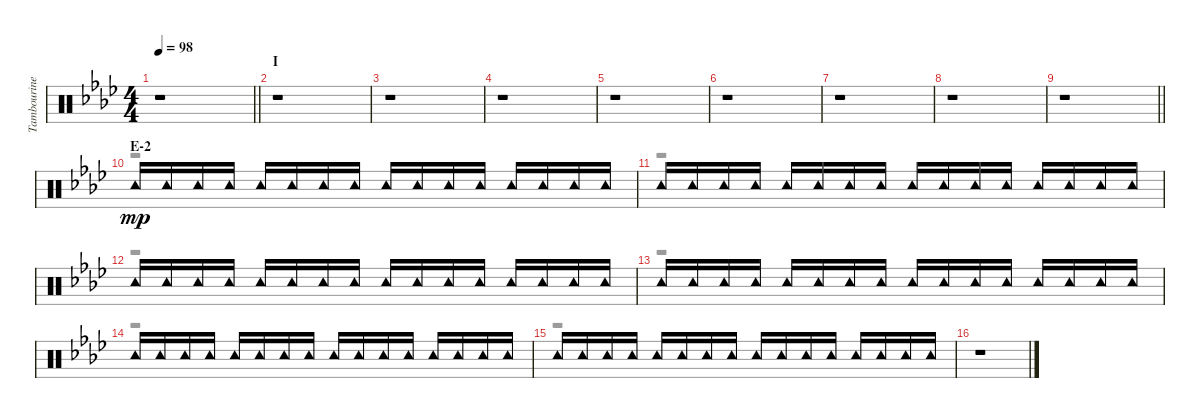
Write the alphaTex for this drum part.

\track ("Tambourine" "Tambourine") {instrument percussion}
\staff {score}
\articulation defaults
\voice
\ts (4 4)
\tempo 98
\clef neutral
\barLineRight lightlight
\ks ab
r.1{dy mp} |
\section ("" "I")
r.1 |
r.1 |
r.1 |
r.1 |
r.1 |
r.1 |
r.1 |
\barLineRight lightlight
r.1 |
\section ("" "E-2")
"Tambourine (hit)".16 "Tambourine (hit)".16 "Tambourine (hit)".16 "Tambourine (hit)".16 "Tambourine (hit)".16 "Tambourine (hit)".16 "Tambourine (hit)".16 "Tambourine (hit)".16 "Tambourine (hit)".16 "Tambourine (hit)".16 "Tambourine (hit)".16 "Tambourine (hit)".16 "Tambourine (hit)".16 "Tambourine (hit)".16 "Tambourine (hit)".16 "Tambourine (hit)".16 |
"Tambourine (hit)".16 "Tambourine (hit)".16 "Tambourine (hit)".16 "Tambourine (hit)".16 "Tambourine (hit)".16 "Tambourine (hit)".16 "Tambourine (hit)".16 "Tambourine (hit)".16 "Tambourine (hit)".16 "Tambourine (hit)".16 "Tambourine (hit)".16 "Tambourine (hit)".16 "Tambourine (hit)".16 "Tambourine (hit)".16 "Tambourine (hit)".16 "Tambourine (hit)".16 |
"Tambourine (hit)".16 "Tambourine (hit)".16 "Tambourine (hit)".16 "Tambourine (hit)".16 "Tambourine (hit)".16 "Tambourine (hit)".16 "Tambourine (hit)".16 "Tambourine (hit)".16 "Tambourine (hit)".16 "Tambourine (hit)".16 "Tambourine (hit)".16 "Tambourine (hit)".16 "Tambourine (hit)".16 "Tambourine (hit)".16 "Tambourine (hit)".16 "Tambourine (hit)".16 |
"Tambourine (hit)".16 "Tambourine (hit)".16 "Tambourine (hit)".16 "Tambourine (hit)".16 "Tambourine (hit)".16 "Tambourine (hit)".16 "Tambourine (hit)".16 "Tambourine (hit)".16 "Tambourine (hit)".16 "Tambourine (hit)".16 "Tambourine (hit)".16 "Tambourine (hit)".16 "Tambourine (hit)".16 "Tambourine (hit)".16 "Tambourine (hit)".16 "Tambourine (hit)".16 |
"Tambourine (hit)".16 "Tambourine (hit)".16 "Tambourine (hit)".16 "Tambourine (hit)".16 "Tambourine (hit)".16 "Tambourine (hit)".16 "Tambourine (hit)".16 "Tambourine (hit)".16 "Tambourine (hit)".16 "Tambourine (hit)".16 "Tambourine (hit)".16 "Tambourine (hit)".16 "Tambourine (hit)".16 "Tambourine (hit)".16 "Tambourine (hit)".16 "Tambourine (hit)".16 |
"Tambourine (hit)".16 "Tambourine (hit)".16 "Tambourine (hit)".16 "Tambourine (hit)".16 "Tambourine (hit)".16 "Tambourine (hit)".16 "Tambourine (hit)".16 "Tambourine (hit)".16 "Tambourine (hit)".16 "Tambourine (hit)".16 "Tambourine (hit)".16 "Tambourine (hit)".16 "Tambourine (hit)".16 "Tambourine (hit)".16 "Tambourine (hit)".16 "Tambourine (hit)".16 |
r.1
\voice
\clef neutral
\ottava regular
\simile none
\barLineRight lightlight
\ks ab
r.1{dy f} |
r.1 |
r.1 |
r.1 |
r.1 |
r.1 |
r.1 |
r.1 |
\barLineRight lightlight
r.1 |
r.1 |
r.1 |
r.1 |
r.1 |
r.1 |
r.1 |
r.1
